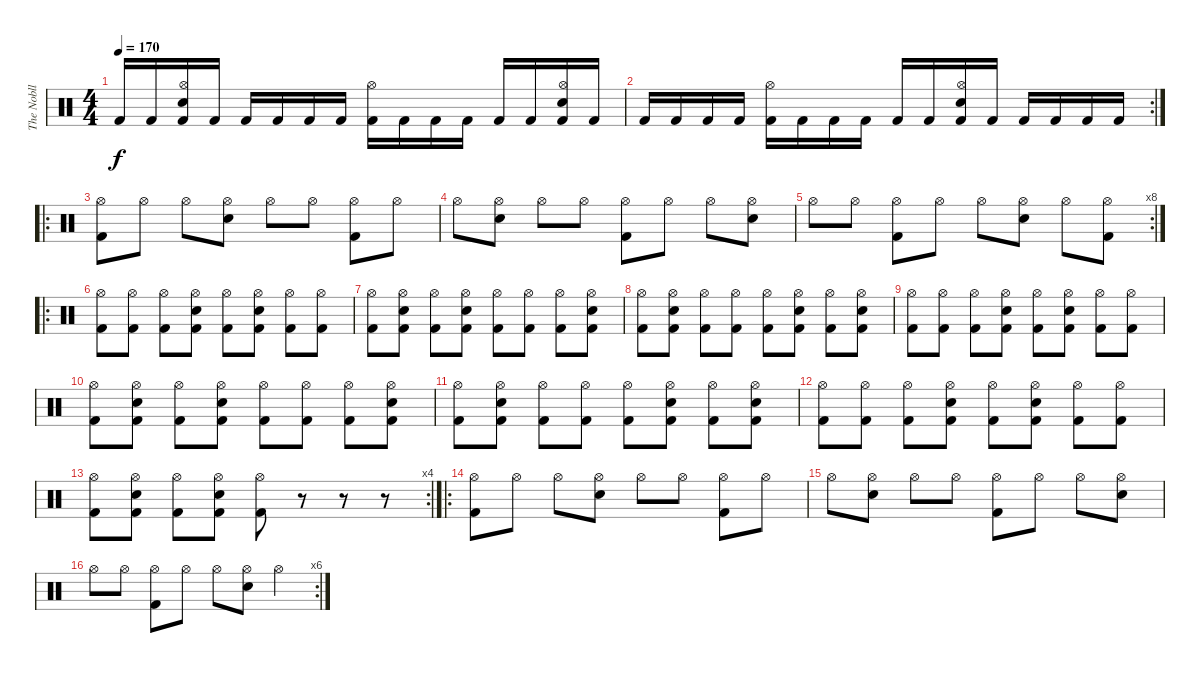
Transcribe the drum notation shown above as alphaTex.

\track ("The Nobll" "The Nobll") {instrument percussion}
\staff {score}
\articulation defaults
\ts (4 4)
\tempo 170
\clef neutral
\ks c "Kick (hit) 2".16{dy f} "Kick (hit) 2".16
("Hi-Hat (open)" "Snare (hit) 2" "Kick (hit) 2").16 "Kick (hit) 2".16 "Kick (hit) 2".16 "Kick (hit) 2".16 "Kick (hit) 2".16 "Kick (hit) 2".16 ("Hi-Hat (open)" "Kick (hit) 2").16 "Kick (hit) 2".16 "Kick (hit) 2".16 "Kick (hit) 2".16 "Kick (hit) 2".16 "Kick (hit) 2".16 ("Hi-Hat (open)" "Snare (hit) 2" "Kick (hit) 2").16 "Kick (hit) 2".16 |
\rc 2 "Kick (hit) 2".16 "Kick (hit) 2".16 "Kick (hit) 2".16 "Kick (hit) 2".16
("Hi-Hat (open)" "Kick (hit) 2").16 "Kick (hit) 2".16 "Kick (hit) 2".16 "Kick (hit) 2".16 "Kick (hit) 2".16 "Kick (hit) 2".16 ("Hi-Hat (open)" "Snare (hit) 2" "Kick (hit) 2").16 "Kick (hit) 2".16 "Kick (hit) 2".16 "Kick (hit) 2".16 "Kick (hit) 2".16 "Kick (hit) 2".16 |
\ro
("Hi-Hat (open)" "Kick (hit) 2").8 "Hi-Hat (open)".8 "Hi-Hat (open)".8 ("Hi-Hat (open)" "Snare (hit) 2").8 "Hi-Hat (open)".8 "Hi-Hat (open)".8 ("Hi-Hat (open)" "Kick (hit) 2").8 "Hi-Hat (open)".8 |
"Hi-Hat (open)".8 ("Hi-Hat (open)" "Snare (hit) 2").8 "Hi-Hat (open)".8 "Hi-Hat (open)".8 ("Hi-Hat (open)" "Kick (hit) 2").8 "Hi-Hat (open)".8 "Hi-Hat (open)".8 ("Hi-Hat (open)" "Snare (hit) 2").8 |
\rc 8 "Hi-Hat (open)".8 "Hi-Hat (open)".8
("Hi-Hat (open)" "Kick (hit) 2").8 "Hi-Hat (open)".8 "Hi-Hat (open)".8 ("Hi-Hat (open)" "Snare (hit) 2").8 "Hi-Hat (open)".8 ("Hi-Hat (open)" "Kick (hit) 2").8 |
\ro
("Hi-Hat (open)" "Kick (hit) 2").8 ("Hi-Hat (open)" "Kick (hit) 2").8 ("Hi-Hat (open)" "Kick (hit) 2").8 ("Hi-Hat (open)" "Snare (hit) 2" "Kick (hit) 2").8 ("Hi-Hat (open)" "Kick (hit) 2").8 ("Hi-Hat (open)" "Snare (hit) 2" "Kick (hit) 2").8 ("Hi-Hat (open)" "Kick (hit) 2").8 ("Hi-Hat (open)" "Kick (hit) 2").8 |
("Hi-Hat (open)" "Kick (hit) 2").8 ("Hi-Hat (open)" "Snare (hit) 2" "Kick (hit) 2").8 ("Hi-Hat (open)" "Kick (hit) 2").8 ("Hi-Hat (open)" "Snare (hit) 2" "Kick (hit) 2").8 ("Hi-Hat (open)" "Kick (hit) 2").8 ("Hi-Hat (open)" "Kick (hit) 2").8 ("Hi-Hat (open)" "Kick (hit) 2").8 ("Hi-Hat (open)" "Snare (hit) 2" "Kick (hit) 2").8 |
("Hi-Hat (open)" "Kick (hit) 2").8 ("Hi-Hat (open)" "Snare (hit) 2" "Kick (hit) 2").8 ("Hi-Hat (open)" "Kick (hit) 2").8 ("Hi-Hat (open)" "Kick (hit) 2").8 ("Hi-Hat (open)" "Kick (hit) 2").8 ("Hi-Hat (open)" "Snare (hit) 2" "Kick (hit) 2").8 ("Hi-Hat (open)" "Kick (hit) 2").8 ("Hi-Hat (open)" "Snare (hit) 2" "Kick (hit) 2").8 |
("Hi-Hat (open)" "Kick (hit) 2").8 ("Hi-Hat (open)" "Kick (hit) 2").8 ("Hi-Hat (open)" "Kick (hit) 2").8 ("Hi-Hat (open)" "Snare (hit) 2" "Kick (hit) 2").8 ("Hi-Hat (open)" "Kick (hit) 2").8 ("Hi-Hat (open)" "Snare (hit) 2" "Kick (hit) 2").8 ("Hi-Hat (open)" "Kick (hit) 2").8 ("Hi-Hat (open)" "Kick (hit) 2").8 |
("Hi-Hat (open)" "Kick (hit) 2").8 ("Hi-Hat (open)" "Snare (hit) 2" "Kick (hit) 2").8 ("Hi-Hat (open)" "Kick (hit) 2").8 ("Hi-Hat (open)" "Snare (hit) 2" "Kick (hit) 2").8 ("Hi-Hat (open)" "Kick (hit) 2").8 ("Hi-Hat (open)" "Kick (hit) 2").8 ("Hi-Hat (open)" "Kick (hit) 2").8 ("Hi-Hat (open)" "Snare (hit) 2" "Kick (hit) 2").8 |
("Hi-Hat (open)" "Kick (hit) 2").8 ("Hi-Hat (open)" "Snare (hit) 2" "Kick (hit) 2").8 ("Hi-Hat (open)" "Kick (hit) 2").8 ("Hi-Hat (open)" "Kick (hit) 2").8 ("Hi-Hat (open)" "Kick (hit) 2").8 ("Hi-Hat (open)" "Snare (hit) 2" "Kick (hit) 2").8 ("Hi-Hat (open)" "Kick (hit) 2").8 ("Hi-Hat (open)" "Snare (hit) 2" "Kick (hit) 2").8 |
("Hi-Hat (open)" "Kick (hit) 2").8 ("Hi-Hat (open)" "Kick (hit) 2").8 ("Hi-Hat (open)" "Kick (hit) 2").8 ("Hi-Hat (open)" "Snare (hit) 2" "Kick (hit) 2").8 ("Hi-Hat (open)" "Kick (hit) 2").8 ("Hi-Hat (open)" "Snare (hit) 2" "Kick (hit) 2").8 ("Hi-Hat (open)" "Kick (hit) 2").8 ("Hi-Hat (open)" "Kick (hit) 2").8 |
\rc 4
("Hi-Hat (open)" "Kick (hit) 2").8 ("Hi-Hat (open)" "Snare (hit) 2" "Kick (hit) 2").8 ("Hi-Hat (open)" "Kick (hit) 2").8 ("Hi-Hat (open)" "Snare (hit) 2" "Kick (hit) 2").8 ("Hi-Hat (open)" "Kick (hit) 2").8 r.8 r.8 r.8 |
\ro
("Hi-Hat (open)" "Kick (hit) 2").8 "Hi-Hat (open)".8 "Hi-Hat (open)".8 ("Hi-Hat (open)" "Snare (hit) 2").8 "Hi-Hat (open)".8 "Hi-Hat (open)".8 ("Hi-Hat (open)" "Kick (hit) 2").8 "Hi-Hat (open)".8 |
"Hi-Hat (open)".8 ("Hi-Hat (open)" "Snare (hit) 2").8 "Hi-Hat (open)".8 "Hi-Hat (open)".8 ("Hi-Hat (open)" "Kick (hit) 2").8 "Hi-Hat (open)".8 "Hi-Hat (open)".8 ("Hi-Hat (open)" "Snare (hit) 2").8 |
\rc 6 "Hi-Hat (open)".8 "Hi-Hat (open)".8
("Hi-Hat (open)" "Kick (hit) 2").8 "Hi-Hat (open)".8 "Hi-Hat (open)".8 ("Hi-Hat (open)" "Snare (hit) 2").8 "Hi-Hat (open)".4
